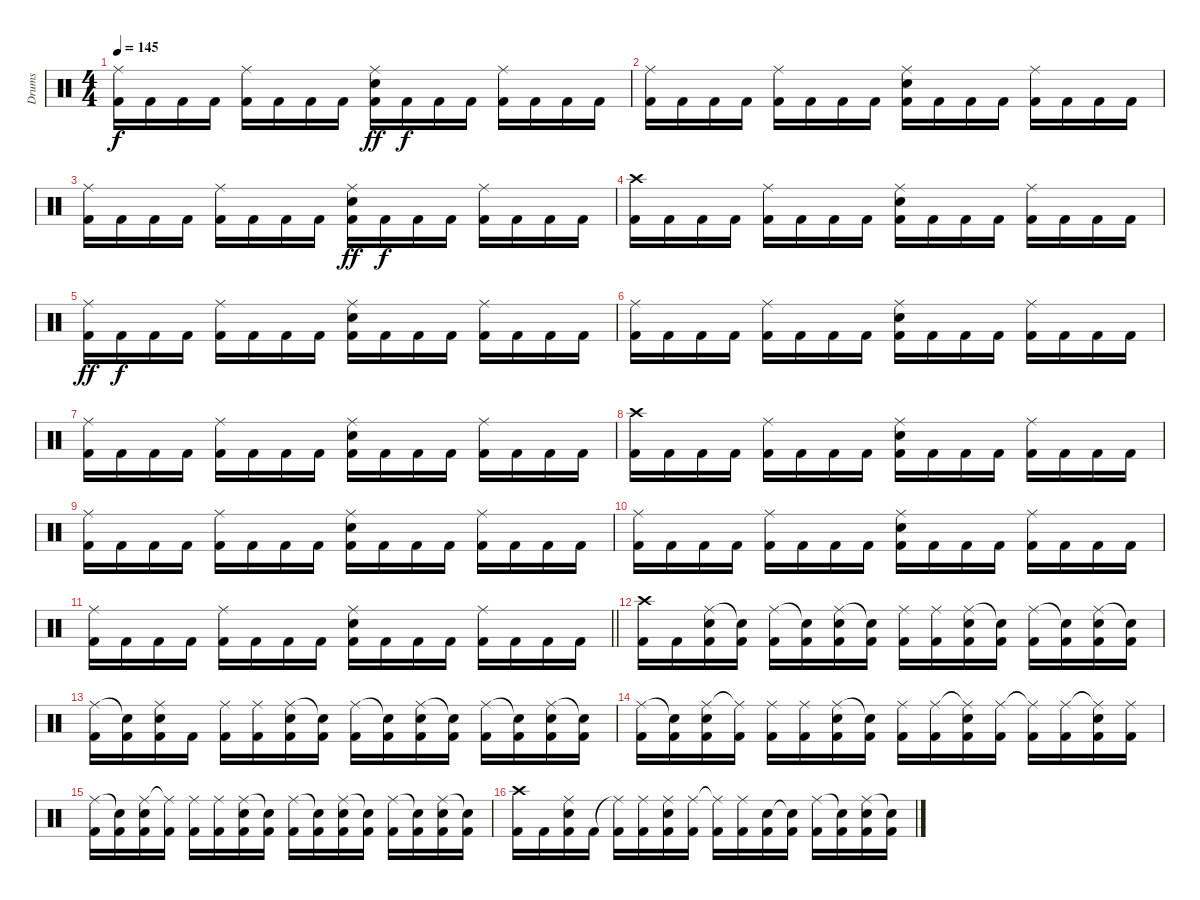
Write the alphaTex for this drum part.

\track ("Drums" "Drums") {instrument percussion}
\staff {score}
\articulation defaults
\ts (4 4)
\tempo 145
\clef neutral
\ks c
("Ride (middle)" "Kick (hit) 2").16{dy f} "Kick (hit) 2".16 "Kick (hit) 2".16 "Kick (hit) 2".16 ("Ride (middle)" "Kick (hit) 2").16 "Kick (hit) 2".16 "Kick (hit) 2".16 "Kick (hit) 2".16 ("Ride (middle)" "Electric Snare (hit)" "Kick (hit) 2").16{dy ff} "Kick (hit) 2".16{dy f} "Kick (hit) 2".16 "Kick (hit) 2".16 ("Ride (middle)" "Kick (hit) 2").16 "Kick (hit) 2".16 "Kick (hit) 2".16 "Kick (hit) 2".16 |
("Ride (middle)" "Kick (hit) 2").16 "Kick (hit) 2".16 "Kick (hit) 2".16 "Kick (hit) 2".16 ("Ride (middle)" "Kick (hit) 2").16 "Kick (hit) 2".16 "Kick (hit) 2".16 "Kick (hit) 2".16 ("Ride (middle)" "Electric Snare (hit)" "Kick (hit) 2").16 "Kick (hit) 2".16 "Kick (hit) 2".16 "Kick (hit) 2".16 ("Ride (middle)" "Kick (hit) 2").16 "Kick (hit) 2".16 "Kick (hit) 2".16 "Kick (hit) 2".16 |
("Ride (middle)" "Kick (hit) 2").16 "Kick (hit) 2".16 "Kick (hit) 2".16 "Kick (hit) 2".16 ("Ride (middle)" "Kick (hit) 2").16 "Kick (hit) 2".16 "Kick (hit) 2".16 "Kick (hit) 2".16 ("Ride (middle)" "Electric Snare (hit)" "Kick (hit) 2").16{dy ff} "Kick (hit) 2".16{dy f} "Kick (hit) 2".16 "Kick (hit) 2".16 ("Ride (middle)" "Kick (hit) 2").16 "Kick (hit) 2".16 "Kick (hit) 2".16 "Kick (hit) 2".16 |
("Crash high (hit)" "Kick (hit) 2").16 "Kick (hit) 2".16 "Kick (hit) 2".16 "Kick (hit) 2".16 ("Ride (middle)" "Kick (hit) 2").16 "Kick (hit) 2".16 "Kick (hit) 2".16 "Kick (hit) 2".16 ("Ride (middle)" "Electric Snare (hit)" "Kick (hit) 2").16 "Kick (hit) 2".16 "Kick (hit) 2".16 "Kick (hit) 2".16 ("Ride (middle)" "Kick (hit) 2").16 "Kick (hit) 2".16 "Kick (hit) 2".16 "Kick (hit) 2".16 |
("Ride (middle)" "Kick (hit) 2").16{dy ff} "Kick (hit) 2".16{dy f} "Kick (hit) 2".16 "Kick (hit) 2".16 ("Ride (middle)" "Kick (hit) 2").16 "Kick (hit) 2".16 "Kick (hit) 2".16 "Kick (hit) 2".16 ("Ride (middle)" "Electric Snare (hit)" "Kick (hit) 2").16 "Kick (hit) 2".16 "Kick (hit) 2".16 "Kick (hit) 2".16 ("Ride (middle)" "Kick (hit) 2").16 "Kick (hit) 2".16 "Kick (hit) 2".16 "Kick (hit) 2".16 |
("Ride (middle)" "Kick (hit) 2").16 "Kick (hit) 2".16 "Kick (hit) 2".16 "Kick (hit) 2".16 ("Ride (middle)" "Kick (hit) 2").16 "Kick (hit) 2".16 "Kick (hit) 2".16 "Kick (hit) 2".16 ("Ride (middle)" "Electric Snare (hit)" "Kick (hit) 2").16 "Kick (hit) 2".16 "Kick (hit) 2".16 "Kick (hit) 2".16 ("Ride (middle)" "Kick (hit) 2").16 "Kick (hit) 2".16 "Kick (hit) 2".16 "Kick (hit) 2".16 |
("Ride (middle)" "Kick (hit) 2").16 "Kick (hit) 2".16 "Kick (hit) 2".16 "Kick (hit) 2".16 ("Ride (middle)" "Kick (hit) 2").16 "Kick (hit) 2".16 "Kick (hit) 2".16 "Kick (hit) 2".16 ("Ride (middle)" "Electric Snare (hit)" "Kick (hit) 2").16 "Kick (hit) 2".16 "Kick (hit) 2".16 "Kick (hit) 2".16 ("Ride (middle)" "Kick (hit) 2").16 "Kick (hit) 2".16 "Kick (hit) 2".16 "Kick (hit) 2".16 |
("Crash high (hit)" "Kick (hit) 2").16 "Kick (hit) 2".16 "Kick (hit) 2".16 "Kick (hit) 2".16 ("Ride (middle)" "Kick (hit) 2").16 "Kick (hit) 2".16 "Kick (hit) 2".16 "Kick (hit) 2".16 ("Ride (middle)" "Electric Snare (hit)" "Kick (hit) 2").16 "Kick (hit) 2".16 "Kick (hit) 2".16 "Kick (hit) 2".16 ("Ride (middle)" "Kick (hit) 2").16 "Kick (hit) 2".16 "Kick (hit) 2".16 "Kick (hit) 2".16 |
("Ride (middle)" "Kick (hit) 2").16 "Kick (hit) 2".16 "Kick (hit) 2".16 "Kick (hit) 2".16 ("Ride (middle)" "Kick (hit) 2").16 "Kick (hit) 2".16 "Kick (hit) 2".16 "Kick (hit) 2".16 ("Ride (middle)" "Electric Snare (hit)" "Kick (hit) 2").16 "Kick (hit) 2".16 "Kick (hit) 2".16 "Kick (hit) 2".16 ("Ride (middle)" "Kick (hit) 2").16 "Kick (hit) 2".16 "Kick (hit) 2".16 "Kick (hit) 2".16 |
("Ride (middle)" "Kick (hit) 2").16 "Kick (hit) 2".16 "Kick (hit) 2".16 "Kick (hit) 2".16 ("Ride (middle)" "Kick (hit) 2").16 "Kick (hit) 2".16 "Kick (hit) 2".16 "Kick (hit) 2".16 ("Ride (middle)" "Electric Snare (hit)" "Kick (hit) 2").16 "Kick (hit) 2".16 "Kick (hit) 2".16 "Kick (hit) 2".16 ("Ride (middle)" "Kick (hit) 2").16 "Kick (hit) 2".16 "Kick (hit) 2".16 "Kick (hit) 2".16 |
\barLineRight lightlight
("Ride (middle)" "Kick (hit) 2").16 "Kick (hit) 2".16 "Kick (hit) 2".16 "Kick (hit) 2".16 ("Ride (middle)" "Kick (hit) 2").16 "Kick (hit) 2".16 "Kick (hit) 2".16 "Kick (hit) 2".16 ("Ride (middle)" "Electric Snare (hit)" "Kick (hit) 2").16 "Kick (hit) 2".16 "Kick (hit) 2".16 "Kick (hit) 2".16 ("Ride (middle)" "Kick (hit) 2").16 "Kick (hit) 2".16 "Kick (hit) 2".16 "Kick (hit) 2".16 |
\section ("" "")
("Crash high (hit)" "Kick (hit) 2").16 "Kick (hit) 2".16 ("Ride (middle)" "Electric Snare (hit)" "Kick (hit) 2").16 ("Snare (hit)"{t} "Kick (hit) 2").16 ("Ride (middle)" "Kick (hit) 2").16 ("Snare (hit)"{t} "Kick (hit) 2").16 ("Ride (middle)" "Electric Snare (hit)" "Kick (hit) 2").16 ("Snare (hit)"{t} "Kick (hit) 2").16 ("Ride (middle)" "Kick (hit) 2").16 ("Ride (middle)" "Kick (hit) 2").16 ("Ride (middle)" "Electric Snare (hit)" "Kick (hit) 2").16 ("Snare (hit)"{t} "Kick (hit) 2").16 ("Ride (middle)" "Kick (hit) 2").16 ("Snare (hit)"{t} "Kick (hit) 2").16 ("Ride (middle)" "Electric Snare (hit)" "Kick (hit) 2").16 ("Snare (hit)"{t} "Kick (hit) 2").16 |
("Ride (middle)" "Kick (hit) 2").16 ("Snare (hit)"{t} "Kick (hit) 2").16 ("Ride (middle)" "Electric Snare (hit)" "Kick (hit) 2").16 "Kick (hit) 2".16 ("Ride (middle)" "Kick (hit) 2").16 ("Ride (middle)" "Kick (hit) 2").16 ("Ride (middle)" "Electric Snare (hit)" "Kick (hit) 2").16 ("Snare (hit)"{t} "Kick (hit) 2").16 ("Ride (middle)" "Kick (hit) 2").16 ("Snare (hit)"{t} "Kick (hit) 2").16 ("Ride (middle)" "Electric Snare (hit)" "Kick (hit) 2").16 ("Snare (hit)"{t} "Kick (hit) 2").16 ("Ride (middle)" "Kick (hit) 2").16 ("Snare (hit)"{t} "Kick (hit) 2").16 ("Ride (middle)" "Electric Snare (hit)" "Kick (hit) 2").16 ("Snare (hit)"{t} "Kick (hit) 2").16 |
("Ride (middle)" "Kick (hit) 2").16 ("Snare (hit)"{t} "Kick (hit) 2").16 ("Ride (middle)" "Electric Snare (hit)" "Kick (hit) 2").16 ("Ride (middle)"{t} "Kick (hit) 2").16 ("Ride (middle)" "Kick (hit) 2").16 ("Ride (middle)" "Kick (hit) 2").16 ("Ride (middle)" "Electric Snare (hit)" "Kick (hit) 2").16 ("Snare (hit)"{t} "Kick (hit) 2").16 ("Ride (middle)" "Kick (hit) 2").16 ("Ride (middle)" "Kick (hit) 2").16 ("Ride (middle)"{t} "Electric Snare (hit)" "Kick (hit) 2").16 ("Ride (middle)" "Kick (hit) 2").16 ("Ride (middle)"{t} "Kick (hit) 2").16 ("Ride (middle)" "Kick (hit) 2").16 ("Ride (middle)"{t} "Electric Snare (hit)" "Kick (hit) 2").16 ("Ride (middle)" "Kick (hit) 2").16 |
("Ride (middle)" "Kick (hit) 2").16 ("Snare (hit)"{t} "Kick (hit) 2").16 ("Ride (middle)" "Electric Snare (hit)" "Kick (hit) 2").16 ("Ride (middle)"{t} "Kick (hit) 2").16 ("Ride (middle)" "Kick (hit) 2").16 ("Ride (middle)" "Kick (hit) 2").16 ("Ride (middle)" "Electric Snare (hit)" "Kick (hit) 2").16 ("Snare (hit)"{t} "Kick (hit) 2").16 ("Ride (middle)" "Kick (hit) 2").16 ("Snare (hit)"{t} "Kick (hit) 2").16 ("Ride (middle)" "Electric Snare (hit)" "Kick (hit) 2").16 ("Snare (hit)"{t} "Kick (hit) 2").16 ("Ride (middle)" "Kick (hit) 2").16 ("Snare (hit)"{t} "Kick (hit) 2").16 ("Ride (middle)" "Electric Snare (hit)" "Kick (hit) 2").16 ("Snare (hit)"{t} "Kick (hit) 2").16 |
("Crash high (hit)" "Kick (hit) 2").16 "Kick (hit) 2".16 ("Ride (middle)" "Electric Snare (hit)" "Kick (hit) 2").16 "Kick (hit) 2".16 ("Ride (middle)"{t} "Kick (hit) 2").16 ("Ride (middle)" "Kick (hit) 2").16 ("Ride (middle)" "Electric Snare (hit)" "Kick (hit) 2").16 ("Ride (middle)" "Kick (hit) 2").16 ("Ride (middle)"{t} "Kick (hit) 2").16 ("Ride (middle)" "Kick (hit) 2").16 ("Electric Snare (hit)" "Kick (hit) 2").16 ("Snare (hit)"{t} "Kick (hit) 2").16 ("Ride (middle)" "Kick (hit) 2").16 ("Snare (hit)"{t} "Kick (hit) 2").16 ("Ride (middle)" "Electric Snare (hit)" "Kick (hit) 2").16 ("Snare (hit)"{t} "Kick (hit) 2").16
